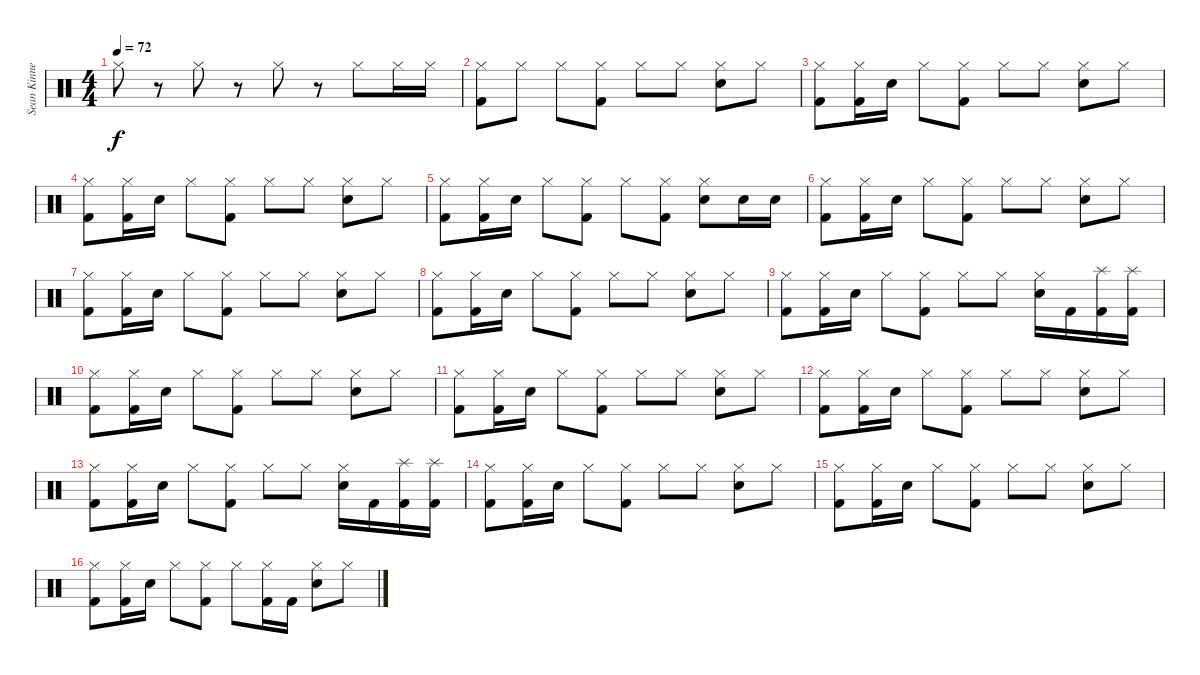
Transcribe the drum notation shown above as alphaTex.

\track ("Sean Kinney - Drums" "Sean Kinne") {instrument percussion}
\staff {score}
\articulation defaults
\ts (4 4)
\tempo 72
\clef neutral
\ks c "Hi-Hat (closed)".8{dy f}
r.8 "Hi-Hat (closed)".8 r.8 "Hi-Hat (closed)".8 r.8 "Hi-Hat (closed)".8 "Hi-Hat (closed)".16 "Hi-Hat (closed)".16 |
("Hi-Hat (closed)" "Kick (hit) 2").8 "Hi-Hat (closed)".8 "Hi-Hat (closed)".8 ("Hi-Hat (closed)" "Kick (hit) 2").8 "Hi-Hat (closed)".8 "Hi-Hat (closed)".8 ("Hi-Hat (closed)" "Electric Snare (hit)").8 "Hi-Hat (closed)".8 |
("Hi-Hat (closed)" "Kick (hit) 2").8 ("Hi-Hat (closed)" "Kick (hit) 2").16 "Electric Snare (hit)".16 "Hi-Hat (closed)".8 ("Hi-Hat (closed)" "Kick (hit) 2").8 "Hi-Hat (closed)".8 "Hi-Hat (closed)".8 ("Hi-Hat (closed)" "Electric Snare (hit)").8 "Hi-Hat (closed)".8 |
("Hi-Hat (closed)" "Kick (hit) 2").8 ("Hi-Hat (closed)" "Kick (hit) 2").16 "Electric Snare (hit)".16 "Hi-Hat (closed)".8 ("Hi-Hat (closed)" "Kick (hit) 2").8 "Hi-Hat (closed)".8 "Hi-Hat (closed)".8 ("Hi-Hat (closed)" "Electric Snare (hit)").8 "Hi-Hat (closed)".8 |
("Hi-Hat (closed)" "Kick (hit) 2").8 ("Hi-Hat (closed)" "Kick (hit) 2").16 "Electric Snare (hit)".16 "Hi-Hat (closed)".8 ("Hi-Hat (closed)" "Kick (hit) 2").8 "Hi-Hat (closed)".8 ("Hi-Hat (closed)" "Kick (hit) 2").8 ("Hi-Hat (closed)" "Electric Snare (hit)").8 "Electric Snare (hit)".16 "Electric Snare (hit)".16 |
("Hi-Hat (closed)" "Kick (hit) 2").8 ("Hi-Hat (closed)" "Kick (hit) 2").16 "Electric Snare (hit)".16 "Hi-Hat (closed)".8 ("Hi-Hat (closed)" "Kick (hit) 2").8 "Hi-Hat (closed)".8 "Hi-Hat (closed)".8 ("Hi-Hat (closed)" "Electric Snare (hit)").8 "Hi-Hat (closed)".8 |
("Hi-Hat (closed)" "Kick (hit) 2").8 ("Hi-Hat (closed)" "Kick (hit) 2").16 "Electric Snare (hit)".16 "Hi-Hat (closed)".8 ("Hi-Hat (closed)" "Kick (hit) 2").8 "Hi-Hat (closed)".8 "Hi-Hat (closed)".8 ("Hi-Hat (closed)" "Electric Snare (hit)").8 "Hi-Hat (closed)".8 |
("Hi-Hat (closed)" "Kick (hit) 2").8 ("Hi-Hat (closed)" "Kick (hit) 2").16 "Electric Snare (hit)".16 "Hi-Hat (closed)".8 ("Hi-Hat (closed)" "Kick (hit) 2").8 "Hi-Hat (closed)".8 "Hi-Hat (closed)".8 ("Hi-Hat (closed)" "Electric Snare (hit)").8 "Hi-Hat (closed)".8 |
("Hi-Hat (closed)" "Kick (hit) 2").8 ("Hi-Hat (closed)" "Kick (hit) 2").16 "Electric Snare (hit)".16 "Hi-Hat (closed)".8 ("Hi-Hat (closed)" "Kick (hit) 2").8 "Hi-Hat (closed)".8 "Hi-Hat (closed)".8 ("Hi-Hat (closed)" "Electric Snare (hit)").16 "Kick (hit) 2".16 ("Splash (hit)" "Kick (hit) 2").16 ("Splash (hit)" "Kick (hit) 2").16 |
("Hi-Hat (closed)" "Kick (hit) 2").8 ("Hi-Hat (closed)" "Kick (hit) 2").16 "Electric Snare (hit)".16 "Hi-Hat (closed)".8 ("Hi-Hat (closed)" "Kick (hit) 2").8 "Hi-Hat (closed)".8 "Hi-Hat (closed)".8 ("Hi-Hat (closed)" "Electric Snare (hit)").8 "Hi-Hat (closed)".8 |
("Hi-Hat (closed)" "Kick (hit) 2").8 ("Hi-Hat (closed)" "Kick (hit) 2").16 "Electric Snare (hit)".16 "Hi-Hat (closed)".8 ("Hi-Hat (closed)" "Kick (hit) 2").8 "Hi-Hat (closed)".8 "Hi-Hat (closed)".8 ("Hi-Hat (closed)" "Electric Snare (hit)").8 "Hi-Hat (closed)".8 |
("Hi-Hat (closed)" "Kick (hit) 2").8 ("Hi-Hat (closed)" "Kick (hit) 2").16 "Electric Snare (hit)".16 "Hi-Hat (closed)".8 ("Hi-Hat (closed)" "Kick (hit) 2").8 "Hi-Hat (closed)".8 "Hi-Hat (closed)".8 ("Hi-Hat (closed)" "Electric Snare (hit)").8 "Hi-Hat (closed)".8 |
("Hi-Hat (closed)" "Kick (hit) 2").8 ("Hi-Hat (closed)" "Kick (hit) 2").16 "Electric Snare (hit)".16 "Hi-Hat (closed)".8 ("Hi-Hat (closed)" "Kick (hit) 2").8 "Hi-Hat (closed)".8 "Hi-Hat (closed)".8 ("Hi-Hat (closed)" "Electric Snare (hit)").16 "Kick (hit) 2".16 ("Splash (hit)" "Kick (hit) 2").16 ("Splash (hit)" "Kick (hit) 2").16 |
("Hi-Hat (closed)" "Kick (hit) 2").8 ("Hi-Hat (closed)" "Kick (hit) 2").16 "Electric Snare (hit)".16 "Hi-Hat (closed)".8 ("Hi-Hat (closed)" "Kick (hit) 2").8 "Hi-Hat (closed)".8 "Hi-Hat (closed)".8 ("Hi-Hat (closed)" "Electric Snare (hit)").8 "Hi-Hat (closed)".8 |
("Hi-Hat (closed)" "Kick (hit) 2").8 ("Hi-Hat (closed)" "Kick (hit) 2").16 "Electric Snare (hit)".16 "Hi-Hat (closed)".8 ("Hi-Hat (closed)" "Kick (hit) 2").8 "Hi-Hat (closed)".8 "Hi-Hat (closed)".8 ("Hi-Hat (closed)" "Electric Snare (hit)").8 "Hi-Hat (closed)".8 |
("Hi-Hat (closed)" "Kick (hit) 2").8 ("Hi-Hat (closed)" "Kick (hit) 2").16 "Electric Snare (hit)".16 "Hi-Hat (closed)".8 ("Hi-Hat (closed)" "Kick (hit) 2").8 "Hi-Hat (closed)".8 ("Hi-Hat (closed)" "Kick (hit) 2").16 "Kick (hit) 2".16 ("Hi-Hat (closed)" "Electric Snare (hit)").8 "Hi-Hat (closed)".8
